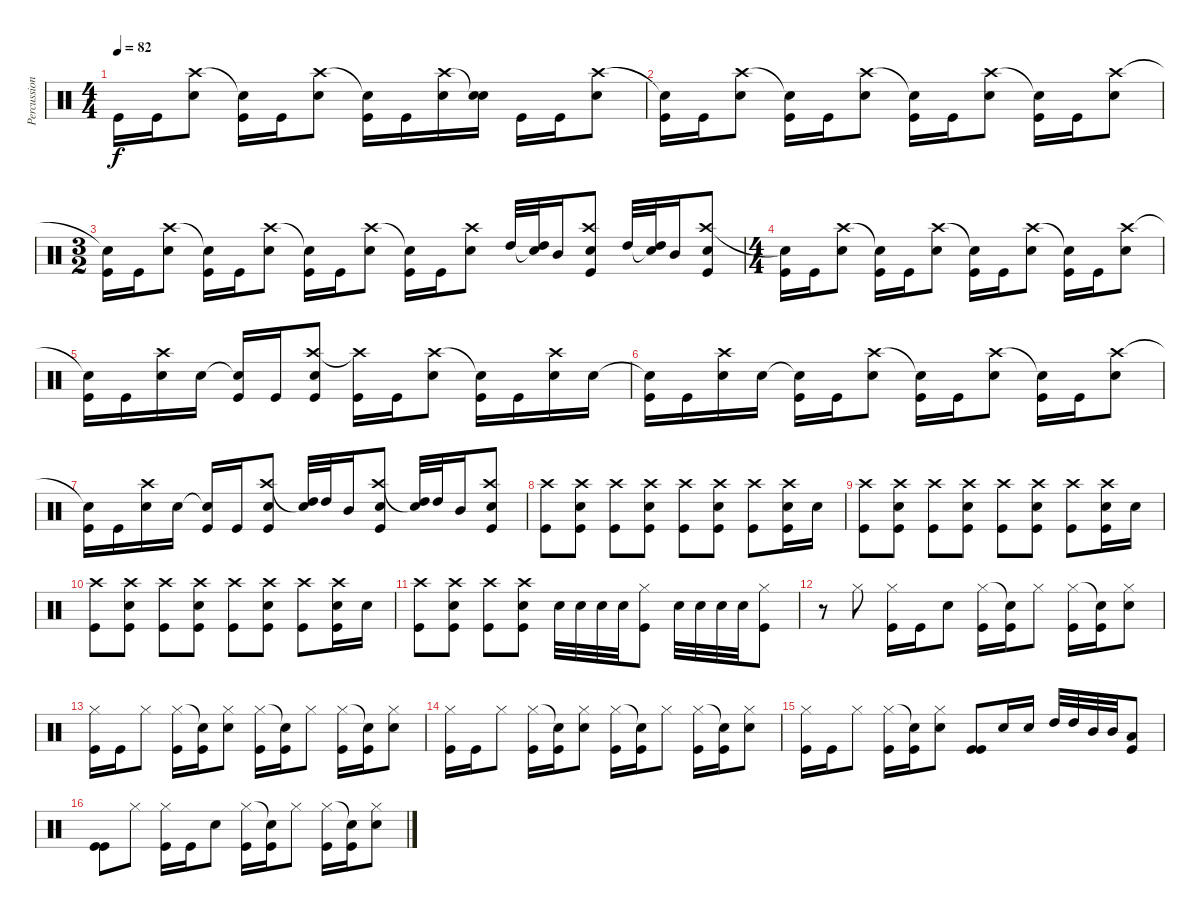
\track ("Percussion" "Percussion") {instrument percussion}
\staff {score}
\articulation defaults
\ts (4 4)
\tempo 82
\clef neutral
\ks c "Kick (hit)".16{dy f} "Kick (hit)".16
("Crash high (hit)" "Snare (hit) 2").8 ("Snare (hit)"{t} "Kick (hit)").16 "Kick (hit)".16 ("Crash high (hit)" "Snare (hit) 2").8 ("Snare (hit)"{t} "Kick (hit)").16 "Kick (hit)".16 ("Crash high (hit)" "Snare (hit) 2").16 ("Snare (hit)"{t} "Snare (hit) 2").16 "Kick (hit)".16 "Kick (hit)".16 ("Crash high (hit)" "Snare (hit) 2").8 |
("Snare (hit)"{t} "Kick (hit)").16 "Kick (hit)".16 ("Crash high (hit)" "Snare (hit) 2").8 ("Snare (hit)"{t} "Kick (hit)").16 "Kick (hit)".16 ("Crash high (hit)" "Snare (hit) 2").8 ("Snare (hit)"{t} "Kick (hit)").16 "Kick (hit)".16 ("Crash high (hit)" "Snare (hit) 2").8 ("Snare (hit)"{t} "Kick (hit)").16 "Kick (hit)".16 ("Crash high (hit)" "Snare (hit) 2").8 |
\ts (3 2)
("Snare (hit)"{t} "Kick (hit)").16 "Kick (hit)".16 ("Crash high (hit)" "Snare (hit) 2").8 ("Snare (hit)"{t} "Kick (hit)").16 "Kick (hit)".16 ("Crash high (hit)" "Snare (hit) 2").8 ("Snare (hit)"{t} "Kick (hit)").16 "Kick (hit)".16 ("Crash high (hit)" "Snare (hit) 2").8 ("Snare (hit)"{t} "Kick (hit)").16 "Kick (hit)".16 ("Crash high (hit)" "Snare (hit) 2").8 "High Tom (hit)".32 ("Snare (hit)"{t} "High Tom (hit)").32 "Mid Tom (hit)".16 ("Crash high (hit)" "Snare (hit) 2" "Kick (hit)").8 "High Tom (hit)".32 ("Snare (hit)"{t} "High Tom (hit)").32 "Mid Tom (hit)".16 ("Crash high (hit)" "Snare (hit) 2" "Kick (hit)").8 |
\ts (4 4)
("Snare (hit)"{t} "Kick (hit)").16 "Kick (hit)".16 ("Crash high (hit)" "Snare (hit) 2").8 ("Snare (hit)"{t} "Kick (hit)").16 "Kick (hit)".16 ("Crash high (hit)" "Snare (hit) 2").8 ("Snare (hit)"{t} "Kick (hit)").16 "Kick (hit)".16 ("Crash high (hit)" "Snare (hit) 2").8 ("Snare (hit)"{t} "Kick (hit)").16 "Kick (hit)".16 ("Crash high (hit)" "Snare (hit) 2").8 |
("Snare (hit)"{t} "Kick (hit)").16 "Kick (hit)".16 ("Crash high (hit)" "Snare (hit) 2").16 "Snare (hit) 2".16 ("Snare (hit)"{t} "Kick (hit)").16 "Kick (hit)".16 ("Crash high (hit)" "Snare (hit) 2" "Kick (hit)").8 ("Crash high (hit)"{t} "Kick (hit)").16 "Kick (hit)".16 ("Crash high (hit)" "Snare (hit) 2").8 ("Snare (hit)"{t} "Kick (hit)").16 "Kick (hit)".16 ("Crash high (hit)" "Snare (hit) 2").16 "Snare (hit) 2".16 |
("Snare (hit)"{t} "Kick (hit)").16 "Kick (hit)".16 ("Crash high (hit)" "Snare (hit) 2").16 "Snare (hit) 2".16 ("Snare (hit)"{t} "Kick (hit)").16 "Kick (hit)".16 ("Crash high (hit)" "Snare (hit) 2").8 ("Snare (hit)"{t} "Kick (hit)").16 "Kick (hit)".16 ("Crash high (hit)" "Snare (hit) 2").8 ("Snare (hit)"{t} "Kick (hit)").16 "Kick (hit)".16 ("Crash high (hit)" "Snare (hit) 2").8 |
("Snare (hit)"{t} "Kick (hit)").16 "Kick (hit)".16 ("Crash high (hit)" "Snare (hit) 2").16 "Snare (hit) 2".16 ("Snare (hit)"{t} "Kick (hit)").16 "Kick (hit)".16 ("Crash high (hit)" "Snare (hit) 2" "Kick (hit)").8 ("Snare (hit)"{t} "High Tom (hit)").32 "High Tom (hit)".32 "Mid Tom (hit)".16 ("Crash high (hit)" "Snare (hit) 2" "Kick (hit)").8 ("Snare (hit)"{t} "High Tom (hit)").32 "High Tom (hit)".32 "Mid Tom (hit)".16 ("Crash high (hit)" "Snare (hit) 2" "Kick (hit)").8 |
("Crash high (hit)" "Kick (hit)").8 ("Crash high (hit)" "Snare (hit) 2" "Kick (hit)").8 ("Crash high (hit)" "Kick (hit)").8 ("Crash high (hit)" "Snare (hit) 2" "Kick (hit)").8 ("Crash high (hit)" "Kick (hit)").8 ("Crash high (hit)" "Snare (hit) 2" "Kick (hit)").8 ("Crash high (hit)" "Kick (hit)").8 ("Crash high (hit)" "Snare (hit) 2" "Kick (hit)").16 "Snare (hit) 2".16 |
("Crash high (hit)" "Kick (hit)").8 ("Crash high (hit)" "Snare (hit) 2" "Kick (hit)").8 ("Crash high (hit)" "Kick (hit)").8 ("Crash high (hit)" "Snare (hit) 2" "Kick (hit)").8 ("Crash high (hit)" "Kick (hit)").8 ("Crash high (hit)" "Snare (hit) 2" "Kick (hit)").8 ("Crash high (hit)" "Kick (hit)").8 ("Crash high (hit)" "Snare (hit) 2" "Kick (hit)").16 "Snare (hit) 2".16 |
("Crash high (hit)" "Kick (hit)").8 ("Crash high (hit)" "Snare (hit) 2" "Kick (hit)").8 ("Crash high (hit)" "Kick (hit)").8 ("Crash high (hit)" "Snare (hit) 2" "Kick (hit)").8 ("Crash high (hit)" "Kick (hit)").8 ("Crash high (hit)" "Snare (hit) 2" "Kick (hit)").8 ("Crash high (hit)" "Kick (hit)").8 ("Crash high (hit)" "Snare (hit) 2" "Kick (hit)").16 "Snare (hit) 2".16 |
("Crash high (hit)" "Kick (hit)").8 ("Crash high (hit)" "Snare (hit) 2" "Kick (hit)").8 ("Crash high (hit)" "Kick (hit)").8 ("Crash high (hit)" "Snare (hit) 2" "Kick (hit)").8 "Snare (hit) 2".32 "Snare (hit) 2".32 "Snare (hit) 2".32 "Snare (hit) 2".32 ("Hi-Hat (closed)" "Kick (hit)").8 "Snare (hit) 2".32 "Snare (hit) 2".32 "Snare (hit) 2".32 "Snare (hit) 2".32 ("Hi-Hat (closed)" "Kick (hit)").8 |
r.8 "Hi-Hat (closed)".8 ("Hi-Hat (closed)" "Kick (hit)").16 "Kick (hit)".16 "Snare (hit) 2".8 ("Hi-Hat (closed)" "Kick (hit)").16 ("Snare (hit)"{t} "Kick (hit)").16 "Hi-Hat (closed)".8 ("Hi-Hat (closed)" "Kick (hit)").16 ("Snare (hit)"{t} "Kick (hit)").16 ("Hi-Hat (closed)" "Snare (hit) 2").8 |
("Hi-Hat (closed)" "Kick (hit)").16 "Kick (hit)".16 "Hi-Hat (closed)".8 ("Hi-Hat (closed)" "Kick (hit)").16 ("Snare (hit)"{t} "Kick (hit)").16 ("Hi-Hat (closed)" "Snare (hit) 2").8 ("Hi-Hat (closed)" "Kick (hit)").16 ("Snare (hit)"{t} "Kick (hit)").16 "Hi-Hat (closed)".8 ("Hi-Hat (closed)" "Kick (hit)").16 ("Snare (hit)"{t} "Kick (hit)").16 ("Hi-Hat (closed)" "Snare (hit) 2").8 |
("Hi-Hat (closed)" "Kick (hit)").16 "Kick (hit)".16 "Hi-Hat (closed)".8 ("Hi-Hat (closed)" "Kick (hit)").16 ("Snare (hit)"{t} "Kick (hit)").16 ("Hi-Hat (closed)" "Snare (hit) 2").8 ("Hi-Hat (closed)" "Kick (hit)").16 ("Snare (hit)"{t} "Kick (hit)").16 "Hi-Hat (closed)".8 ("Hi-Hat (closed)" "Kick (hit)").16 ("Snare (hit)"{t} "Kick (hit)").16 ("Hi-Hat (closed)" "Snare (hit) 2").8 |
("Hi-Hat (closed)" "Kick (hit)").16 "Kick (hit)".16 "Hi-Hat (closed)".8 ("Hi-Hat (closed)" "Kick (hit)").16 ("Snare (hit)"{t} "Kick (hit)").16 ("Hi-Hat (closed)" "Snare (hit) 2").8 ("Kick (hit)" "Kick (hit)").8 "Snare (hit) 2".16 "Snare (hit) 2".16 "High Tom (hit)".32 "High Tom (hit)".32 "Mid Tom (hit)".32 "Mid Tom (hit)".32 ("Low Tom (hit)" "Kick (hit)").8 |
("Kick (hit)" "Kick (hit)").8 "Hi-Hat (closed)".8 ("Hi-Hat (closed)" "Kick (hit)").16 "Kick (hit)".16 "Snare (hit) 2".8 ("Hi-Hat (closed)" "Kick (hit)").16 ("Snare (hit)"{t} "Kick (hit)").16 "Hi-Hat (closed)".8 ("Hi-Hat (closed)" "Kick (hit)").16 ("Snare (hit)"{t} "Kick (hit)").16 ("Hi-Hat (closed)" "Snare (hit) 2").8
